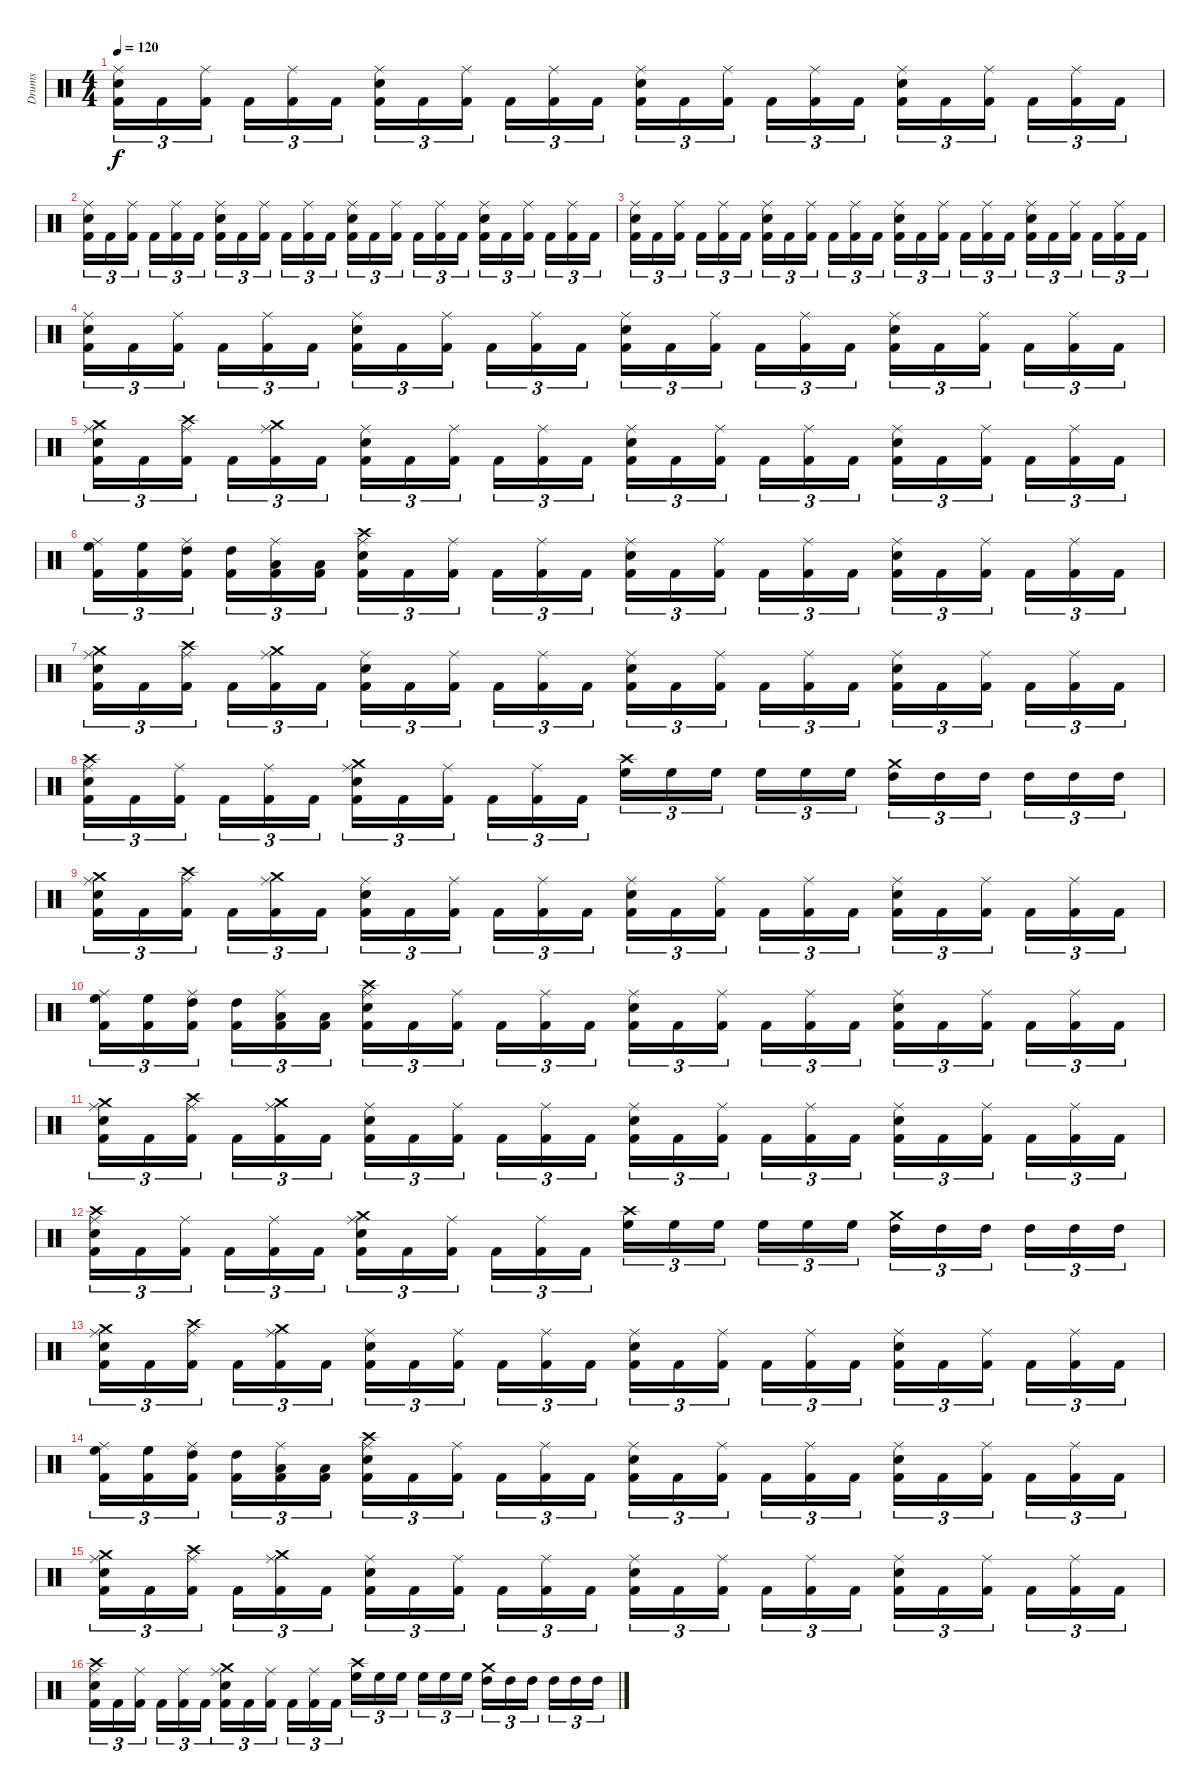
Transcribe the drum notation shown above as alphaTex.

\track ("Drums" "Drums") {instrument percussion}
\staff {score}
\articulation defaults
\ts (4 4)
\tempo 120
\clef neutral
\ks c
("Ride (middle)" "Snare (hit) 2" "Kick (hit) 2").16{tu (3 2) dy f} "Kick (hit) 2".16{tu (3 2)} ("Ride (middle)" "Kick (hit) 2").16{tu (3 2)} "Kick (hit) 2".16{tu (3 2)} ("Ride (middle)" "Kick (hit) 2").16{tu (3 2)} "Kick (hit) 2".16{tu (3 2)} ("Ride (middle)" "Snare (hit) 2" "Kick (hit) 2").16{tu (3 2)} "Kick (hit) 2".16{tu (3 2)} ("Ride (middle)" "Kick (hit) 2").16{tu (3 2)} "Kick (hit) 2".16{tu (3 2)} ("Ride (middle)" "Kick (hit) 2").16{tu (3 2)} "Kick (hit) 2".16{tu (3 2)} ("Ride (middle)" "Snare (hit) 2" "Kick (hit) 2").16{tu (3 2)} "Kick (hit) 2".16{tu (3 2)} ("Ride (middle)" "Kick (hit) 2").16{tu (3 2)} "Kick (hit) 2".16{tu (3 2)} ("Ride (middle)" "Kick (hit) 2").16{tu (3 2)} "Kick (hit) 2".16{tu (3 2)} ("Ride (middle)" "Snare (hit) 2" "Kick (hit) 2").16{tu (3 2)} "Kick (hit) 2".16{tu (3 2)} ("Ride (middle)" "Kick (hit) 2").16{tu (3 2)} "Kick (hit) 2".16{tu (3 2)} ("Ride (middle)" "Kick (hit) 2").16{tu (3 2)} "Kick (hit) 2".16{tu (3 2)} |
("Ride (middle)" "Snare (hit) 2" "Kick (hit) 2").16{tu (3 2)} "Kick (hit) 2".16{tu (3 2)} ("Ride (middle)" "Kick (hit) 2").16{tu (3 2)} "Kick (hit) 2".16{tu (3 2)} ("Ride (middle)" "Kick (hit) 2").16{tu (3 2)} "Kick (hit) 2".16{tu (3 2)} ("Ride (middle)" "Snare (hit) 2" "Kick (hit) 2").16{tu (3 2)} "Kick (hit) 2".16{tu (3 2)} ("Ride (middle)" "Kick (hit) 2").16{tu (3 2)} "Kick (hit) 2".16{tu (3 2)} ("Ride (middle)" "Kick (hit) 2").16{tu (3 2)} "Kick (hit) 2".16{tu (3 2)} ("Ride (middle)" "Snare (hit) 2" "Kick (hit) 2").16{tu (3 2)} "Kick (hit) 2".16{tu (3 2)} ("Ride (middle)" "Kick (hit) 2").16{tu (3 2)} "Kick (hit) 2".16{tu (3 2)} ("Ride (middle)" "Kick (hit) 2").16{tu (3 2)} "Kick (hit) 2".16{tu (3 2)} ("Ride (middle)" "Snare (hit) 2" "Kick (hit) 2").16{tu (3 2)} "Kick (hit) 2".16{tu (3 2)} ("Ride (middle)" "Kick (hit) 2").16{tu (3 2)} "Kick (hit) 2".16{tu (3 2)} ("Ride (middle)" "Kick (hit) 2").16{tu (3 2)} "Kick (hit) 2".16{tu (3 2)} |
("Ride (middle)" "Snare (hit) 2" "Kick (hit) 2").16{tu (3 2)} "Kick (hit) 2".16{tu (3 2)} ("Ride (middle)" "Kick (hit) 2").16{tu (3 2)} "Kick (hit) 2".16{tu (3 2)} ("Ride (middle)" "Kick (hit) 2").16{tu (3 2)} "Kick (hit) 2".16{tu (3 2)} ("Ride (middle)" "Snare (hit) 2" "Kick (hit) 2").16{tu (3 2)} "Kick (hit) 2".16{tu (3 2)} ("Ride (middle)" "Kick (hit) 2").16{tu (3 2)} "Kick (hit) 2".16{tu (3 2)} ("Ride (middle)" "Kick (hit) 2").16{tu (3 2)} "Kick (hit) 2".16{tu (3 2)} ("Ride (middle)" "Snare (hit) 2" "Kick (hit) 2").16{tu (3 2)} "Kick (hit) 2".16{tu (3 2)} ("Ride (middle)" "Kick (hit) 2").16{tu (3 2)} "Kick (hit) 2".16{tu (3 2)} ("Ride (middle)" "Kick (hit) 2").16{tu (3 2)} "Kick (hit) 2".16{tu (3 2)} ("Ride (middle)" "Snare (hit) 2" "Kick (hit) 2").16{tu (3 2)} "Kick (hit) 2".16{tu (3 2)} ("Ride (middle)" "Kick (hit) 2").16{tu (3 2)} "Kick (hit) 2".16{tu (3 2)} ("Ride (middle)" "Kick (hit) 2").16{tu (3 2)} "Kick (hit) 2".16{tu (3 2)} |
("Ride (middle)" "Snare (hit) 2" "Kick (hit) 2").16{tu (3 2)} "Kick (hit) 2".16{tu (3 2)} ("Ride (middle)" "Kick (hit) 2").16{tu (3 2)} "Kick (hit) 2".16{tu (3 2)} ("Ride (middle)" "Kick (hit) 2").16{tu (3 2)} "Kick (hit) 2".16{tu (3 2)} ("Ride (middle)" "Snare (hit) 2" "Kick (hit) 2").16{tu (3 2)} "Kick (hit) 2".16{tu (3 2)} ("Ride (middle)" "Kick (hit) 2").16{tu (3 2)} "Kick (hit) 2".16{tu (3 2)} ("Ride (middle)" "Kick (hit) 2").16{tu (3 2)} "Kick (hit) 2".16{tu (3 2)} ("Ride (middle)" "Snare (hit) 2" "Kick (hit) 2").16{tu (3 2)} "Kick (hit) 2".16{tu (3 2)} ("Ride (middle)" "Kick (hit) 2").16{tu (3 2)} "Kick (hit) 2".16{tu (3 2)} ("Ride (middle)" "Kick (hit) 2").16{tu (3 2)} "Kick (hit) 2".16{tu (3 2)} ("Ride (middle)" "Snare (hit) 2" "Kick (hit) 2").16{tu (3 2)} "Kick (hit) 2".16{tu (3 2)} ("Ride (middle)" "Kick (hit) 2").16{tu (3 2)} "Kick (hit) 2".16{tu (3 2)} ("Ride (middle)" "Kick (hit) 2").16{tu (3 2)} "Kick (hit) 2".16{tu (3 2)} |
("Crash medium (hit)" "Ride (middle)" "Snare (hit) 2" "Kick (hit) 2").16{tu (3 2)} "Kick (hit) 2".16{tu (3 2)} ("Crash high (hit)" "Ride (middle)" "Kick (hit) 2").16{tu (3 2)} "Kick (hit) 2".16{tu (3 2)} ("Crash medium (hit)" "Ride (middle)" "Kick (hit) 2").16{tu (3 2)} "Kick (hit) 2".16{tu (3 2)} ("Ride (middle)" "Snare (hit) 2" "Kick (hit) 2").16{tu (3 2)} "Kick (hit) 2".16{tu (3 2)} ("Ride (middle)" "Kick (hit) 2").16{tu (3 2)} "Kick (hit) 2".16{tu (3 2)} ("Ride (middle)" "Kick (hit) 2").16{tu (3 2)} "Kick (hit) 2".16{tu (3 2)} ("Ride (middle)" "Snare (hit) 2" "Kick (hit) 2").16{tu (3 2)} "Kick (hit) 2".16{tu (3 2)} ("Ride (middle)" "Kick (hit) 2").16{tu (3 2)} "Kick (hit) 2".16{tu (3 2)} ("Ride (middle)" "Kick (hit) 2").16{tu (3 2)} "Kick (hit) 2".16{tu (3 2)} ("Ride (middle)" "Snare (hit) 2" "Kick (hit) 2").16{tu (3 2)} "Kick (hit) 2".16{tu (3 2)} ("Ride (middle)" "Kick (hit) 2").16{tu (3 2)} "Kick (hit) 2".16{tu (3 2)} ("Ride (middle)" "Kick (hit) 2").16{tu (3 2)} "Kick (hit) 2".16{tu (3 2)} |
("Ride (middle)" "High Floor Tom (hit)" "Kick (hit) 2").16{tu (3 2)} ("High Floor Tom (hit)" "Kick (hit) 2").16{tu (3 2)} ("Ride (middle)" "High Tom (hit)" "Kick (hit) 2").16{tu (3 2)} ("High Tom (hit)" "Kick (hit) 2").16{tu (3 2)} ("Ride (middle)" "Low Tom (hit)" "Kick (hit) 2").16{tu (3 2)} ("Low Tom (hit)" "Kick (hit) 2").16{tu (3 2)} ("Crash high (hit)" "Ride (middle)" "Snare (hit) 2" "Kick (hit) 2").16{tu (3 2)} "Kick (hit) 2".16{tu (3 2)} ("Ride (middle)" "Kick (hit) 2").16{tu (3 2)} "Kick (hit) 2".16{tu (3 2)} ("Ride (middle)" "Kick (hit) 2").16{tu (3 2)} "Kick (hit) 2".16{tu (3 2)} ("Ride (middle)" "Snare (hit) 2" "Kick (hit) 2").16{tu (3 2)} "Kick (hit) 2".16{tu (3 2)} ("Ride (middle)" "Kick (hit) 2").16{tu (3 2)} "Kick (hit) 2".16{tu (3 2)} ("Ride (middle)" "Kick (hit) 2").16{tu (3 2)} "Kick (hit) 2".16{tu (3 2)} ("Ride (middle)" "Snare (hit) 2" "Kick (hit) 2").16{tu (3 2)} "Kick (hit) 2".16{tu (3 2)} ("Ride (middle)" "Kick (hit) 2").16{tu (3 2)} "Kick (hit) 2".16{tu (3 2)} ("Ride (middle)" "Kick (hit) 2").16{tu (3 2)} "Kick (hit) 2".16{tu (3 2)} |
("Crash medium (hit)" "Ride (middle)" "Snare (hit) 2" "Kick (hit) 2").16{tu (3 2)} "Kick (hit) 2".16{tu (3 2)} ("Crash high (hit)" "Ride (middle)" "Kick (hit) 2").16{tu (3 2)} "Kick (hit) 2".16{tu (3 2)} ("Crash medium (hit)" "Ride (middle)" "Kick (hit) 2").16{tu (3 2)} "Kick (hit) 2".16{tu (3 2)} ("Ride (middle)" "Snare (hit) 2" "Kick (hit) 2").16{tu (3 2)} "Kick (hit) 2".16{tu (3 2)} ("Ride (middle)" "Kick (hit) 2").16{tu (3 2)} "Kick (hit) 2".16{tu (3 2)} ("Ride (middle)" "Kick (hit) 2").16{tu (3 2)} "Kick (hit) 2".16{tu (3 2)} ("Ride (middle)" "Snare (hit) 2" "Kick (hit) 2").16{tu (3 2)} "Kick (hit) 2".16{tu (3 2)} ("Ride (middle)" "Kick (hit) 2").16{tu (3 2)} "Kick (hit) 2".16{tu (3 2)} ("Ride (middle)" "Kick (hit) 2").16{tu (3 2)} "Kick (hit) 2".16{tu (3 2)} ("Ride (middle)" "Snare (hit) 2" "Kick (hit) 2").16{tu (3 2)} "Kick (hit) 2".16{tu (3 2)} ("Ride (middle)" "Kick (hit) 2").16{tu (3 2)} "Kick (hit) 2".16{tu (3 2)} ("Ride (middle)" "Kick (hit) 2").16{tu (3 2)} "Kick (hit) 2".16{tu (3 2)} |
("Crash high (hit)" "Ride (middle)" "Snare (hit) 2" "Kick (hit) 2").16{tu (3 2)} "Kick (hit) 2".16{tu (3 2)} ("Ride (middle)" "Kick (hit) 2").16{tu (3 2)} "Kick (hit) 2".16{tu (3 2)} ("Ride (middle)" "Kick (hit) 2").16{tu (3 2)} "Kick (hit) 2".16{tu (3 2)} ("Crash medium (hit)" "Ride (middle)" "Snare (hit) 2" "Kick (hit) 2").16{tu (3 2)} "Kick (hit) 2".16{tu (3 2)} ("Ride (middle)" "Kick (hit) 2").16{tu (3 2)} "Kick (hit) 2".16{tu (3 2)} ("Ride (middle)" "Kick (hit) 2").16{tu (3 2)} "Kick (hit) 2".16{tu (3 2)} ("Crash high (hit)" "High Floor Tom (hit)").16{tu (3 2)} "High Floor Tom (hit)".16{tu (3 2)} "High Floor Tom (hit)".16{tu (3 2)} "High Floor Tom (hit)".16{tu (3 2)} "High Floor Tom (hit)".16{tu (3 2)} "High Floor Tom (hit)".16{tu (3 2)} ("Crash medium (hit)" "High Tom (hit)").16{tu (3 2)} "High Tom (hit)".16{tu (3 2)} "High Tom (hit)".16{tu (3 2)} "High Tom (hit)".16{tu (3 2)} "High Tom (hit)".16{tu (3 2)} "High Tom (hit)".16{tu (3 2)} |
("Crash medium (hit)" "Ride (middle)" "Snare (hit) 2" "Kick (hit) 2").16{tu (3 2)} "Kick (hit) 2".16{tu (3 2)} ("Crash high (hit)" "Ride (middle)" "Kick (hit) 2").16{tu (3 2)} "Kick (hit) 2".16{tu (3 2)} ("Crash medium (hit)" "Ride (middle)" "Kick (hit) 2").16{tu (3 2)} "Kick (hit) 2".16{tu (3 2)} ("Ride (middle)" "Snare (hit) 2" "Kick (hit) 2").16{tu (3 2)} "Kick (hit) 2".16{tu (3 2)} ("Ride (middle)" "Kick (hit) 2").16{tu (3 2)} "Kick (hit) 2".16{tu (3 2)} ("Ride (middle)" "Kick (hit) 2").16{tu (3 2)} "Kick (hit) 2".16{tu (3 2)} ("Ride (middle)" "Snare (hit) 2" "Kick (hit) 2").16{tu (3 2)} "Kick (hit) 2".16{tu (3 2)} ("Ride (middle)" "Kick (hit) 2").16{tu (3 2)} "Kick (hit) 2".16{tu (3 2)} ("Ride (middle)" "Kick (hit) 2").16{tu (3 2)} "Kick (hit) 2".16{tu (3 2)} ("Ride (middle)" "Snare (hit) 2" "Kick (hit) 2").16{tu (3 2)} "Kick (hit) 2".16{tu (3 2)} ("Ride (middle)" "Kick (hit) 2").16{tu (3 2)} "Kick (hit) 2".16{tu (3 2)} ("Ride (middle)" "Kick (hit) 2").16{tu (3 2)} "Kick (hit) 2".16{tu (3 2)} |
("Ride (middle)" "High Floor Tom (hit)" "Kick (hit) 2").16{tu (3 2)} ("High Floor Tom (hit)" "Kick (hit) 2").16{tu (3 2)} ("Ride (middle)" "High Tom (hit)" "Kick (hit) 2").16{tu (3 2)} ("High Tom (hit)" "Kick (hit) 2").16{tu (3 2)} ("Ride (middle)" "Low Tom (hit)" "Kick (hit) 2").16{tu (3 2)} ("Low Tom (hit)" "Kick (hit) 2").16{tu (3 2)} ("Crash high (hit)" "Ride (middle)" "Snare (hit) 2" "Kick (hit) 2").16{tu (3 2)} "Kick (hit) 2".16{tu (3 2)} ("Ride (middle)" "Kick (hit) 2").16{tu (3 2)} "Kick (hit) 2".16{tu (3 2)} ("Ride (middle)" "Kick (hit) 2").16{tu (3 2)} "Kick (hit) 2".16{tu (3 2)} ("Ride (middle)" "Snare (hit) 2" "Kick (hit) 2").16{tu (3 2)} "Kick (hit) 2".16{tu (3 2)} ("Ride (middle)" "Kick (hit) 2").16{tu (3 2)} "Kick (hit) 2".16{tu (3 2)} ("Ride (middle)" "Kick (hit) 2").16{tu (3 2)} "Kick (hit) 2".16{tu (3 2)} ("Ride (middle)" "Snare (hit) 2" "Kick (hit) 2").16{tu (3 2)} "Kick (hit) 2".16{tu (3 2)} ("Ride (middle)" "Kick (hit) 2").16{tu (3 2)} "Kick (hit) 2".16{tu (3 2)} ("Ride (middle)" "Kick (hit) 2").16{tu (3 2)} "Kick (hit) 2".16{tu (3 2)} |
("Crash medium (hit)" "Ride (middle)" "Snare (hit) 2" "Kick (hit) 2").16{tu (3 2)} "Kick (hit) 2".16{tu (3 2)} ("Crash high (hit)" "Ride (middle)" "Kick (hit) 2").16{tu (3 2)} "Kick (hit) 2".16{tu (3 2)} ("Crash medium (hit)" "Ride (middle)" "Kick (hit) 2").16{tu (3 2)} "Kick (hit) 2".16{tu (3 2)} ("Ride (middle)" "Snare (hit) 2" "Kick (hit) 2").16{tu (3 2)} "Kick (hit) 2".16{tu (3 2)} ("Ride (middle)" "Kick (hit) 2").16{tu (3 2)} "Kick (hit) 2".16{tu (3 2)} ("Ride (middle)" "Kick (hit) 2").16{tu (3 2)} "Kick (hit) 2".16{tu (3 2)} ("Ride (middle)" "Snare (hit) 2" "Kick (hit) 2").16{tu (3 2)} "Kick (hit) 2".16{tu (3 2)} ("Ride (middle)" "Kick (hit) 2").16{tu (3 2)} "Kick (hit) 2".16{tu (3 2)} ("Ride (middle)" "Kick (hit) 2").16{tu (3 2)} "Kick (hit) 2".16{tu (3 2)} ("Ride (middle)" "Snare (hit) 2" "Kick (hit) 2").16{tu (3 2)} "Kick (hit) 2".16{tu (3 2)} ("Ride (middle)" "Kick (hit) 2").16{tu (3 2)} "Kick (hit) 2".16{tu (3 2)} ("Ride (middle)" "Kick (hit) 2").16{tu (3 2)} "Kick (hit) 2".16{tu (3 2)} |
("Crash high (hit)" "Ride (middle)" "Snare (hit) 2" "Kick (hit) 2").16{tu (3 2)} "Kick (hit) 2".16{tu (3 2)} ("Ride (middle)" "Kick (hit) 2").16{tu (3 2)} "Kick (hit) 2".16{tu (3 2)} ("Ride (middle)" "Kick (hit) 2").16{tu (3 2)} "Kick (hit) 2".16{tu (3 2)} ("Crash medium (hit)" "Ride (middle)" "Snare (hit) 2" "Kick (hit) 2").16{tu (3 2)} "Kick (hit) 2".16{tu (3 2)} ("Ride (middle)" "Kick (hit) 2").16{tu (3 2)} "Kick (hit) 2".16{tu (3 2)} ("Ride (middle)" "Kick (hit) 2").16{tu (3 2)} "Kick (hit) 2".16{tu (3 2)} ("Crash high (hit)" "High Floor Tom (hit)").16{tu (3 2)} "High Floor Tom (hit)".16{tu (3 2)} "High Floor Tom (hit)".16{tu (3 2)} "High Floor Tom (hit)".16{tu (3 2)} "High Floor Tom (hit)".16{tu (3 2)} "High Floor Tom (hit)".16{tu (3 2)} ("Crash medium (hit)" "High Tom (hit)").16{tu (3 2)} "High Tom (hit)".16{tu (3 2)} "High Tom (hit)".16{tu (3 2)} "High Tom (hit)".16{tu (3 2)} "High Tom (hit)".16{tu (3 2)} "High Tom (hit)".16{tu (3 2)} |
("Crash medium (hit)" "Ride (middle)" "Snare (hit) 2" "Kick (hit) 2").16{tu (3 2)} "Kick (hit) 2".16{tu (3 2)} ("Crash high (hit)" "Ride (middle)" "Kick (hit) 2").16{tu (3 2)} "Kick (hit) 2".16{tu (3 2)} ("Crash medium (hit)" "Ride (middle)" "Kick (hit) 2").16{tu (3 2)} "Kick (hit) 2".16{tu (3 2)} ("Ride (middle)" "Snare (hit) 2" "Kick (hit) 2").16{tu (3 2)} "Kick (hit) 2".16{tu (3 2)} ("Ride (middle)" "Kick (hit) 2").16{tu (3 2)} "Kick (hit) 2".16{tu (3 2)} ("Ride (middle)" "Kick (hit) 2").16{tu (3 2)} "Kick (hit) 2".16{tu (3 2)} ("Ride (middle)" "Snare (hit) 2" "Kick (hit) 2").16{tu (3 2)} "Kick (hit) 2".16{tu (3 2)} ("Ride (middle)" "Kick (hit) 2").16{tu (3 2)} "Kick (hit) 2".16{tu (3 2)} ("Ride (middle)" "Kick (hit) 2").16{tu (3 2)} "Kick (hit) 2".16{tu (3 2)} ("Ride (middle)" "Snare (hit) 2" "Kick (hit) 2").16{tu (3 2)} "Kick (hit) 2".16{tu (3 2)} ("Ride (middle)" "Kick (hit) 2").16{tu (3 2)} "Kick (hit) 2".16{tu (3 2)} ("Ride (middle)" "Kick (hit) 2").16{tu (3 2)} "Kick (hit) 2".16{tu (3 2)} |
("Ride (middle)" "High Floor Tom (hit)" "Kick (hit) 2").16{tu (3 2)} ("High Floor Tom (hit)" "Kick (hit) 2").16{tu (3 2)} ("Ride (middle)" "High Tom (hit)" "Kick (hit) 2").16{tu (3 2)} ("High Tom (hit)" "Kick (hit) 2").16{tu (3 2)} ("Ride (middle)" "Low Tom (hit)" "Kick (hit) 2").16{tu (3 2)} ("Low Tom (hit)" "Kick (hit) 2").16{tu (3 2)} ("Crash high (hit)" "Ride (middle)" "Snare (hit) 2" "Kick (hit) 2").16{tu (3 2)} "Kick (hit) 2".16{tu (3 2)} ("Ride (middle)" "Kick (hit) 2").16{tu (3 2)} "Kick (hit) 2".16{tu (3 2)} ("Ride (middle)" "Kick (hit) 2").16{tu (3 2)} "Kick (hit) 2".16{tu (3 2)} ("Ride (middle)" "Snare (hit) 2" "Kick (hit) 2").16{tu (3 2)} "Kick (hit) 2".16{tu (3 2)} ("Ride (middle)" "Kick (hit) 2").16{tu (3 2)} "Kick (hit) 2".16{tu (3 2)} ("Ride (middle)" "Kick (hit) 2").16{tu (3 2)} "Kick (hit) 2".16{tu (3 2)} ("Ride (middle)" "Snare (hit) 2" "Kick (hit) 2").16{tu (3 2)} "Kick (hit) 2".16{tu (3 2)} ("Ride (middle)" "Kick (hit) 2").16{tu (3 2)} "Kick (hit) 2".16{tu (3 2)} ("Ride (middle)" "Kick (hit) 2").16{tu (3 2)} "Kick (hit) 2".16{tu (3 2)} |
("Crash medium (hit)" "Ride (middle)" "Snare (hit) 2" "Kick (hit) 2").16{tu (3 2)} "Kick (hit) 2".16{tu (3 2)} ("Crash high (hit)" "Ride (middle)" "Kick (hit) 2").16{tu (3 2)} "Kick (hit) 2".16{tu (3 2)} ("Crash medium (hit)" "Ride (middle)" "Kick (hit) 2").16{tu (3 2)} "Kick (hit) 2".16{tu (3 2)} ("Ride (middle)" "Snare (hit) 2" "Kick (hit) 2").16{tu (3 2)} "Kick (hit) 2".16{tu (3 2)} ("Ride (middle)" "Kick (hit) 2").16{tu (3 2)} "Kick (hit) 2".16{tu (3 2)} ("Ride (middle)" "Kick (hit) 2").16{tu (3 2)} "Kick (hit) 2".16{tu (3 2)} ("Ride (middle)" "Snare (hit) 2" "Kick (hit) 2").16{tu (3 2)} "Kick (hit) 2".16{tu (3 2)} ("Ride (middle)" "Kick (hit) 2").16{tu (3 2)} "Kick (hit) 2".16{tu (3 2)} ("Ride (middle)" "Kick (hit) 2").16{tu (3 2)} "Kick (hit) 2".16{tu (3 2)} ("Ride (middle)" "Snare (hit) 2" "Kick (hit) 2").16{tu (3 2)} "Kick (hit) 2".16{tu (3 2)} ("Ride (middle)" "Kick (hit) 2").16{tu (3 2)} "Kick (hit) 2".16{tu (3 2)} ("Ride (middle)" "Kick (hit) 2").16{tu (3 2)} "Kick (hit) 2".16{tu (3 2)} |
("Crash high (hit)" "Ride (middle)" "Snare (hit) 2" "Kick (hit) 2").16{tu (3 2)} "Kick (hit) 2".16{tu (3 2)} ("Ride (middle)" "Kick (hit) 2").16{tu (3 2)} "Kick (hit) 2".16{tu (3 2)} ("Ride (middle)" "Kick (hit) 2").16{tu (3 2)} "Kick (hit) 2".16{tu (3 2)} ("Crash medium (hit)" "Ride (middle)" "Snare (hit) 2" "Kick (hit) 2").16{tu (3 2)} "Kick (hit) 2".16{tu (3 2)} ("Ride (middle)" "Kick (hit) 2").16{tu (3 2)} "Kick (hit) 2".16{tu (3 2)} ("Ride (middle)" "Kick (hit) 2").16{tu (3 2)} "Kick (hit) 2".16{tu (3 2)} ("Crash high (hit)" "High Floor Tom (hit)").16{tu (3 2)} "High Floor Tom (hit)".16{tu (3 2)} "High Floor Tom (hit)".16{tu (3 2)} "High Floor Tom (hit)".16{tu (3 2)} "High Floor Tom (hit)".16{tu (3 2)} "High Floor Tom (hit)".16{tu (3 2)} ("Crash medium (hit)" "High Tom (hit)").16{tu (3 2)} "High Tom (hit)".16{tu (3 2)} "High Tom (hit)".16{tu (3 2)} "High Tom (hit)".16{tu (3 2)} "High Tom (hit)".16{tu (3 2)} "High Tom (hit)".16{tu (3 2)}
